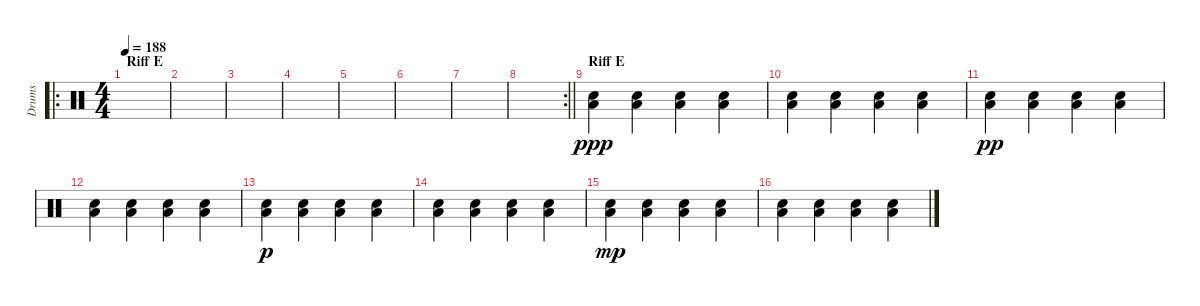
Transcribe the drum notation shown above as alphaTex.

\track ("Drums" "Drums") {instrument percussion}
\staff {score}
\articulation defaults
\ro
\ts (4 4)
\section ("" "Riff E")
\tempo 188
\clef neutral
\ks c
|
|
|
|
|
|
|
\rc 2
\barLineRight lightlight
|
\section ("" "Riff E")
("Electric Snare (hit)" "Low Tom (hit)").4{dy ppp} ("Electric Snare (hit)" "Low Tom (hit)").4 ("Electric Snare (hit)" "Low Tom (hit)").4 ("Electric Snare (hit)" "Low Tom (hit)").4 |
("Electric Snare (hit)" "Low Tom (hit)").4 ("Electric Snare (hit)" "Low Tom (hit)").4 ("Electric Snare (hit)" "Low Tom (hit)").4 ("Electric Snare (hit)" "Low Tom (hit)").4 |
("Electric Snare (hit)" "Low Tom (hit)").4{dy pp} ("Electric Snare (hit)" "Low Tom (hit)").4 ("Electric Snare (hit)" "Low Tom (hit)").4 ("Electric Snare (hit)" "Low Tom (hit)").4 |
("Electric Snare (hit)" "Low Tom (hit)").4 ("Electric Snare (hit)" "Low Tom (hit)").4 ("Electric Snare (hit)" "Low Tom (hit)").4 ("Electric Snare (hit)" "Low Tom (hit)").4 |
("Electric Snare (hit)" "Low Tom (hit)").4{dy p} ("Electric Snare (hit)" "Low Tom (hit)").4 ("Electric Snare (hit)" "Low Tom (hit)").4 ("Electric Snare (hit)" "Low Tom (hit)").4 |
("Electric Snare (hit)" "Low Tom (hit)").4 ("Electric Snare (hit)" "Low Tom (hit)").4 ("Electric Snare (hit)" "Low Tom (hit)").4 ("Electric Snare (hit)" "Low Tom (hit)").4 |
("Electric Snare (hit)" "Low Tom (hit)").4{dy mp} ("Electric Snare (hit)" "Low Tom (hit)").4 ("Electric Snare (hit)" "Low Tom (hit)").4 ("Electric Snare (hit)" "Low Tom (hit)").4 |
("Electric Snare (hit)" "Low Tom (hit)").4 ("Electric Snare (hit)" "Low Tom (hit)").4 ("Electric Snare (hit)" "Low Tom (hit)").4 ("Electric Snare (hit)" "Low Tom (hit)").4
